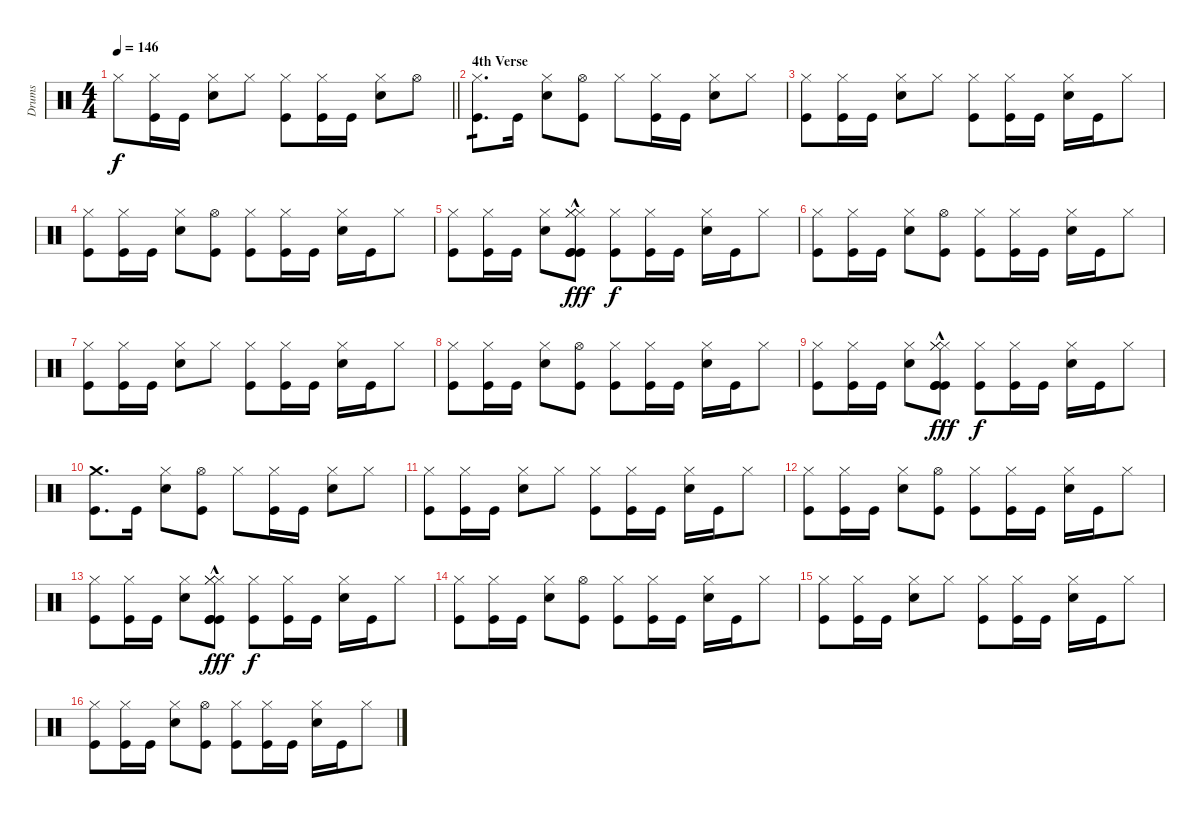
\track ("Drums" "Drums") {instrument percussion}
\staff {score}
\articulation defaults
\ts (4 4)
\tempo 146
\clef neutral
\barLineRight lightlight
\ks c "Hi-Hat (closed)".8{dy f}
("Hi-Hat (closed)" "Kick (hit)").16 "Kick (hit)".16 ("Hi-Hat (closed)" "Electric Snare (hit)").8 "Hi-Hat (closed)".8 ("Hi-Hat (closed)" "Kick (hit)").8 ("Hi-Hat (closed)" "Kick (hit)").16 "Kick (hit)".16 ("Hi-Hat (closed)" "Electric Snare (hit)").8 "Hi-Hat (open)".8 |
\section ("" "4th Verse")
("Hi-Hat (closed)" "Kick (hit)").8{d tp 1} "Kick (hit)".16 ("Hi-Hat (closed)" "Electric Snare (hit)").8 ("Hi-Hat (open)" "Kick (hit)").8 "Hi-Hat (closed)".8 ("Hi-Hat (closed)" "Kick (hit)").16 "Kick (hit)".16 ("Hi-Hat (closed)" "Electric Snare (hit)").8 "Hi-Hat (closed)".8 |
("Hi-Hat (closed)" "Kick (hit)").8 ("Hi-Hat (closed)" "Kick (hit)").16 "Kick (hit)".16 ("Hi-Hat (closed)" "Electric Snare (hit)").8 "Hi-Hat (closed)".8 ("Hi-Hat (closed)" "Kick (hit)").8 ("Hi-Hat (closed)" "Kick (hit)").16 "Kick (hit)".16 ("Hi-Hat (closed)" "Electric Snare (hit)").16 "Kick (hit)".16 "Hi-Hat (closed)".8 |
("Hi-Hat (closed)" "Kick (hit)").8 ("Hi-Hat (closed)" "Kick (hit)").16 "Kick (hit)".16 ("Hi-Hat (closed)" "Electric Snare (hit)").8 ("Hi-Hat (open)" "Kick (hit)").8 ("Hi-Hat (closed)" "Kick (hit)").8 ("Hi-Hat (closed)" "Kick (hit)").16 "Kick (hit)".16 ("Hi-Hat (closed)" "Electric Snare (hit)").16 "Kick (hit)".16 "Hi-Hat (closed)".8 |
("Hi-Hat (closed)" "Kick (hit)").8 ("Hi-Hat (closed)" "Kick (hit)").16 "Kick (hit)".16 ("Hi-Hat (closed)" "Electric Snare (hit)").8 ("Hi-Hat (closed)"{hac} "Hi-Hat (closed)"{hac} "Hi-Hat (closed)"{hac} "Kick (hit)"{hac} "Kick (hit)"{hac} "Kick (hit)"{hac}).8{dy fff} ("Hi-Hat (closed)" "Kick (hit)").8{dy f} ("Hi-Hat (closed)" "Kick (hit)").16 "Kick (hit)".16 ("Hi-Hat (closed)" "Electric Snare (hit)").16 "Kick (hit)".16 "Hi-Hat (closed)".8 |
("Hi-Hat (closed)" "Kick (hit)").8 ("Hi-Hat (closed)" "Kick (hit)").16 "Kick (hit)".16 ("Hi-Hat (closed)" "Electric Snare (hit)").8 ("Hi-Hat (open)" "Kick (hit)").8 ("Hi-Hat (closed)" "Kick (hit)").8 ("Hi-Hat (closed)" "Kick (hit)").16 "Kick (hit)".16 ("Hi-Hat (closed)" "Electric Snare (hit)").16 "Kick (hit)".16 "Hi-Hat (closed)".8 |
("Hi-Hat (closed)" "Kick (hit)").8 ("Hi-Hat (closed)" "Kick (hit)").16 "Kick (hit)".16 ("Hi-Hat (closed)" "Electric Snare (hit)").8 "Hi-Hat (closed)".8 ("Hi-Hat (closed)" "Kick (hit)").8 ("Hi-Hat (closed)" "Kick (hit)").16 "Kick (hit)".16 ("Hi-Hat (closed)" "Electric Snare (hit)").16 "Kick (hit)".16 "Hi-Hat (closed)".8 |
("Hi-Hat (closed)" "Kick (hit)").8 ("Hi-Hat (closed)" "Kick (hit)").16 "Kick (hit)".16 ("Hi-Hat (closed)" "Electric Snare (hit)").8 ("Hi-Hat (open)" "Kick (hit)").8 ("Hi-Hat (closed)" "Kick (hit)").8 ("Hi-Hat (closed)" "Kick (hit)").16 "Kick (hit)".16 ("Hi-Hat (closed)" "Electric Snare (hit)").16 "Kick (hit)".16 "Hi-Hat (closed)".8 |
("Hi-Hat (closed)" "Kick (hit)").8 ("Hi-Hat (closed)" "Kick (hit)").16 "Kick (hit)".16 ("Hi-Hat (closed)" "Electric Snare (hit)").8 ("Hi-Hat (closed)"{hac} "Hi-Hat (closed)"{hac} "Hi-Hat (closed)"{hac} "Kick (hit)"{hac} "Kick (hit)"{hac} "Kick (hit)"{hac}).8{dy fff} ("Hi-Hat (closed)" "Kick (hit)").8{dy f} ("Hi-Hat (closed)" "Kick (hit)").16 "Kick (hit)".16 ("Hi-Hat (closed)" "Electric Snare (hit)").16 "Kick (hit)".16 "Hi-Hat (closed)".8 |
("Crash medium (hit)" "Kick (hit)").8{d} "Kick (hit)".16 ("Hi-Hat (closed)" "Electric Snare (hit)").8 ("Hi-Hat (open)" "Kick (hit)").8 "Hi-Hat (closed)".8 ("Hi-Hat (closed)" "Kick (hit)").16 "Kick (hit)".16 ("Hi-Hat (closed)" "Electric Snare (hit)").8 "Hi-Hat (closed)".8 |
("Hi-Hat (closed)" "Kick (hit)").8 ("Hi-Hat (closed)" "Kick (hit)").16 "Kick (hit)".16 ("Hi-Hat (closed)" "Electric Snare (hit)").8 "Hi-Hat (closed)".8 ("Hi-Hat (closed)" "Kick (hit)").8 ("Hi-Hat (closed)" "Kick (hit)").16 "Kick (hit)".16 ("Hi-Hat (closed)" "Electric Snare (hit)").16 "Kick (hit)".16 "Hi-Hat (closed)".8 |
("Hi-Hat (closed)" "Kick (hit)").8 ("Hi-Hat (closed)" "Kick (hit)").16 "Kick (hit)".16 ("Hi-Hat (closed)" "Electric Snare (hit)").8 ("Hi-Hat (open)" "Kick (hit)").8 ("Hi-Hat (closed)" "Kick (hit)").8 ("Hi-Hat (closed)" "Kick (hit)").16 "Kick (hit)".16 ("Hi-Hat (closed)" "Electric Snare (hit)").16 "Kick (hit)".16 "Hi-Hat (closed)".8 |
("Hi-Hat (closed)" "Kick (hit)").8 ("Hi-Hat (closed)" "Kick (hit)").16 "Kick (hit)".16 ("Hi-Hat (closed)" "Electric Snare (hit)").8 ("Hi-Hat (closed)"{hac} "Hi-Hat (closed)"{hac} "Hi-Hat (closed)"{hac} "Kick (hit)"{hac} "Kick (hit)"{hac} "Kick (hit)"{hac}).8{dy fff} ("Hi-Hat (closed)" "Kick (hit)").8{dy f} ("Hi-Hat (closed)" "Kick (hit)").16 "Kick (hit)".16 ("Hi-Hat (closed)" "Electric Snare (hit)").16 "Kick (hit)".16 "Hi-Hat (closed)".8 |
("Hi-Hat (closed)" "Kick (hit)").8 ("Hi-Hat (closed)" "Kick (hit)").16 "Kick (hit)".16 ("Hi-Hat (closed)" "Electric Snare (hit)").8 ("Hi-Hat (open)" "Kick (hit)").8 ("Hi-Hat (closed)" "Kick (hit)").8 ("Hi-Hat (closed)" "Kick (hit)").16 "Kick (hit)".16 ("Hi-Hat (closed)" "Electric Snare (hit)").16 "Kick (hit)".16 "Hi-Hat (closed)".8 |
("Hi-Hat (closed)" "Kick (hit)").8 ("Hi-Hat (closed)" "Kick (hit)").16 "Kick (hit)".16 ("Hi-Hat (closed)" "Electric Snare (hit)").8 "Hi-Hat (closed)".8 ("Hi-Hat (closed)" "Kick (hit)").8 ("Hi-Hat (closed)" "Kick (hit)").16 "Kick (hit)".16 ("Hi-Hat (closed)" "Electric Snare (hit)").16 "Kick (hit)".16 "Hi-Hat (closed)".8 |
("Hi-Hat (closed)" "Kick (hit)").8 ("Hi-Hat (closed)" "Kick (hit)").16 "Kick (hit)".16 ("Hi-Hat (closed)" "Electric Snare (hit)").8 ("Hi-Hat (open)" "Kick (hit)").8 ("Hi-Hat (closed)" "Kick (hit)").8 ("Hi-Hat (closed)" "Kick (hit)").16 "Kick (hit)".16 ("Hi-Hat (closed)" "Electric Snare (hit)").16 "Kick (hit)".16 "Hi-Hat (closed)".8
